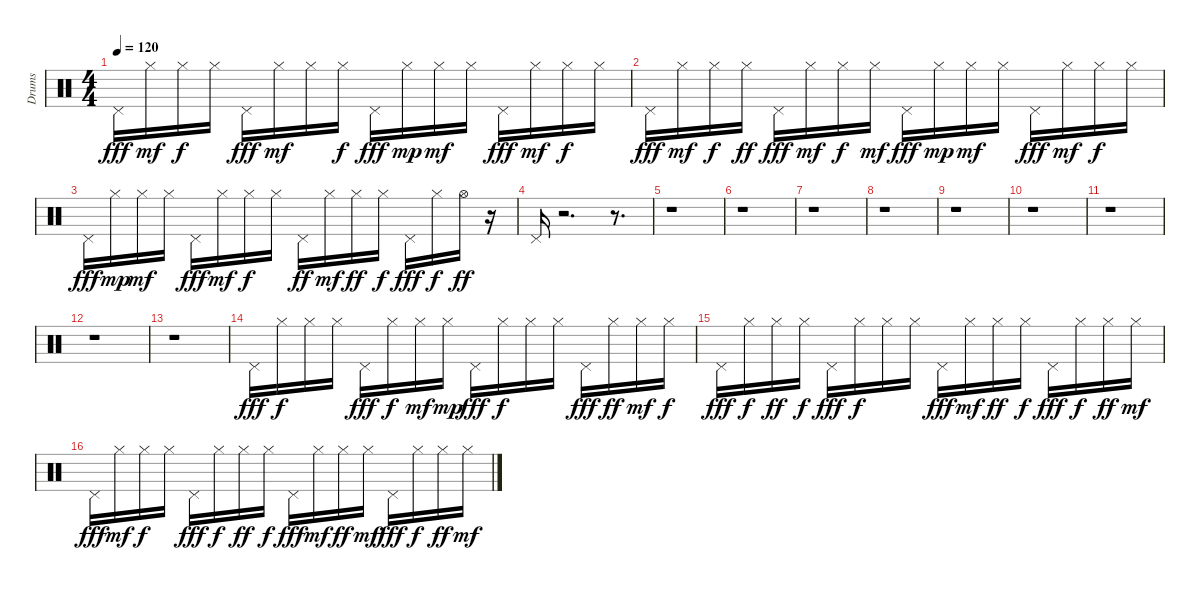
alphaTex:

\track ("Drums" "Drums") {instrument percussion}
\staff {score}
\articulation defaults
\ts (4 4)
\tempo 120
\clef neutral
\ks c "Pedal Hi-Hat (hit)".16{dy fff} "Hi-Hat (closed)".16{dy mf} "Hi-Hat (closed)".16{dy f} "Hi-Hat (closed)".16 "Pedal Hi-Hat (hit)".16{dy fff} "Hi-Hat (closed)".16{dy mf} "Hi-Hat (closed)".16 "Hi-Hat (closed)".16{dy f} "Pedal Hi-Hat (hit)".16{dy fff} "Hi-Hat (closed)".16{dy mp} "Hi-Hat (closed)".16{dy mf} "Hi-Hat (closed)".16 "Pedal Hi-Hat (hit)".16{dy fff} "Hi-Hat (closed)".16{dy mf} "Hi-Hat (closed)".16{dy f} "Hi-Hat (closed)".16
|
"Pedal Hi-Hat (hit)".16{dy fff} "Hi-Hat (closed)".16{dy mf} "Hi-Hat (closed)".16{dy f} "Hi-Hat (closed)".16{dy ff} "Pedal Hi-Hat (hit)".16{dy fff} "Hi-Hat (closed)".16{dy mf} "Hi-Hat (closed)".16{dy f} "Hi-Hat (closed)".16{dy mf} "Pedal Hi-Hat (hit)".16{dy fff} "Hi-Hat (closed)".16{dy mp} "Hi-Hat (closed)".16{dy mf} "Hi-Hat (closed)".16 "Pedal Hi-Hat (hit)".16{dy fff} "Hi-Hat (closed)".16{dy mf} "Hi-Hat (closed)".16{dy f} "Hi-Hat (closed)".16 |
"Pedal Hi-Hat (hit)".16{dy fff} "Hi-Hat (closed)".16{dy mp} "Hi-Hat (closed)".16{dy mf} "Hi-Hat (closed)".16 "Pedal Hi-Hat (hit)".16{dy fff} "Hi-Hat (closed)".16{dy mf} "Hi-Hat (closed)".16{dy f} "Hi-Hat (closed)".16 "Pedal Hi-Hat (hit)".16{dy ff} "Hi-Hat (closed)".16{dy mf} "Hi-Hat (closed)".16{dy ff} "Hi-Hat (closed)".16{dy f} "Pedal Hi-Hat (hit)".16{dy fff} "Hi-Hat (closed)".16{dy f} "Hi-Hat (open)".16{dy ff} r.16 |
"Pedal Hi-Hat (hit)".16 r.2{d} r.8{d} |
r.1 |
r.1 |
r.1 |
r.1 |
r.1 |
r.1 |
r.1 |
r.1 |
r.1 |
"Pedal Hi-Hat (hit)".16{dy fff} "Hi-Hat (closed)".16{dy f} "Hi-Hat (closed)".16 "Hi-Hat (closed)".16 "Pedal Hi-Hat (hit)".16{dy fff} "Hi-Hat (closed)".16{dy f} "Hi-Hat (closed)".16{dy mf} "Hi-Hat (closed)".16{dy mp} "Pedal Hi-Hat (hit)".16{dy fff} "Hi-Hat (closed)".16{dy f} "Hi-Hat (closed)".16 "Hi-Hat (closed)".16 "Pedal Hi-Hat (hit)".16{dy fff} "Hi-Hat (closed)".16{dy ff} "Hi-Hat (closed)".16{dy mf} "Hi-Hat (closed)".16{dy f} |
"Pedal Hi-Hat (hit)".16{dy fff} "Hi-Hat (closed)".16{dy f} "Hi-Hat (closed)".16{dy ff} "Hi-Hat (closed)".16{dy f} "Pedal Hi-Hat (hit)".16{dy fff} "Hi-Hat (closed)".16{dy f} "Hi-Hat (closed)".16 "Hi-Hat (closed)".16 "Pedal Hi-Hat (hit)".16{dy fff} "Hi-Hat (closed)".16{dy mf} "Hi-Hat (closed)".16{dy ff} "Hi-Hat (closed)".16{dy f} "Pedal Hi-Hat (hit)".16{dy fff} "Hi-Hat (closed)".16{dy f} "Hi-Hat (closed)".16{dy ff} "Hi-Hat (closed)".16{dy mf} |
"Pedal Hi-Hat (hit)".16{dy fff} "Hi-Hat (closed)".16{dy mf} "Hi-Hat (closed)".16{dy f} "Hi-Hat (closed)".16 "Pedal Hi-Hat (hit)".16{dy fff} "Hi-Hat (closed)".16{dy f} "Hi-Hat (closed)".16{dy ff} "Hi-Hat (closed)".16{dy f} "Pedal Hi-Hat (hit)".16{dy fff} "Hi-Hat (closed)".16{dy mf} "Hi-Hat (closed)".16{dy ff} "Hi-Hat (closed)".16{dy mf} "Pedal Hi-Hat (hit)".16{dy fff} "Hi-Hat (closed)".16{dy f} "Hi-Hat (closed)".16{dy ff} "Hi-Hat (closed)".16{dy mf}
